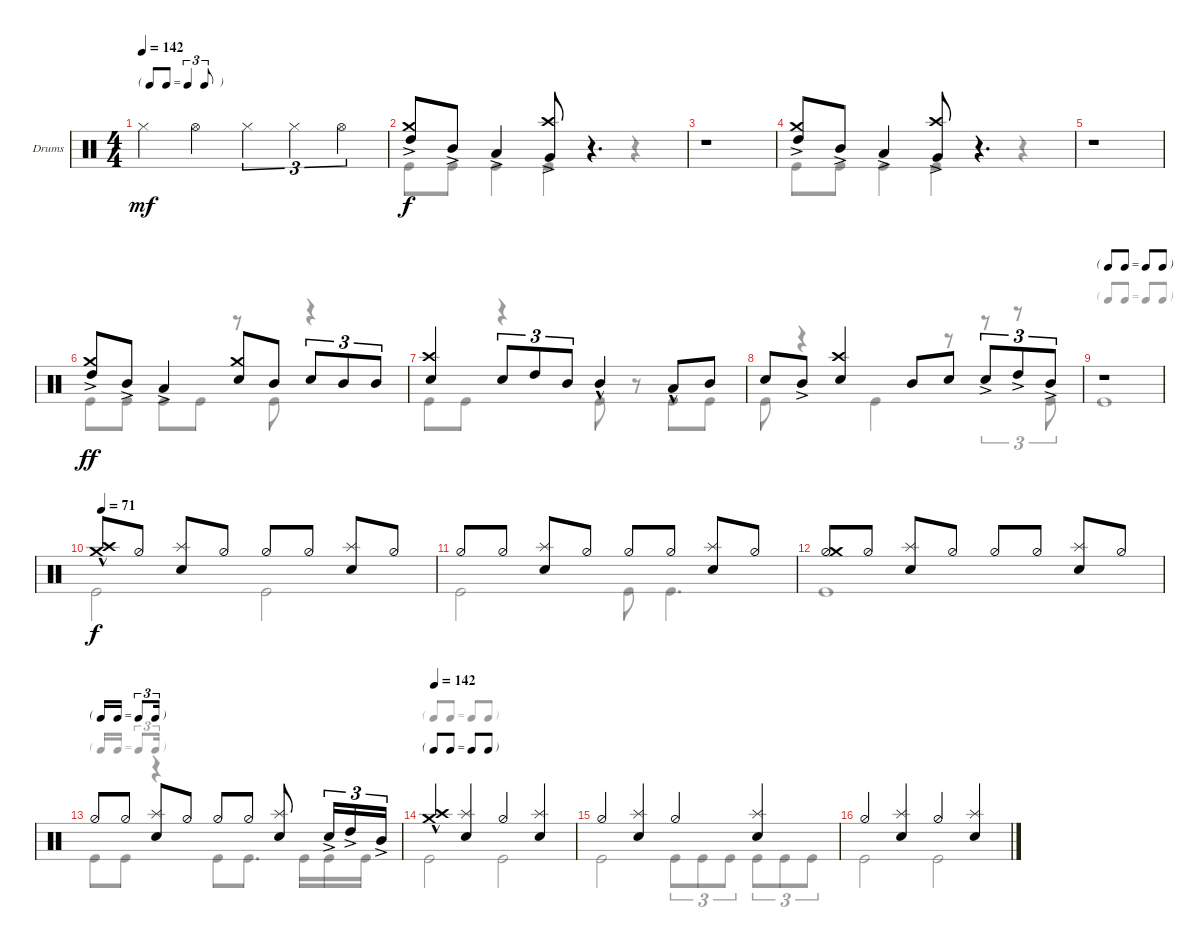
\defaultSystemsLayout 4
\bracketExtendMode groupsimilarinstruments
\firstSystemTrackNameOrientation horizontal
\otherSystemsTrackNameOrientation horizontal
\track ("Drumkit" "Drums") {instrument percussion}
\staff {score}
\articulation defaults
\voice
\ts (4 4)
\tf triplet8th
\tempo 142
\clef neutral
\ks c "Hi-Hat (closed)".4{dy mf} "Hi-Hat (open)".4 "Hi-Hat (closed)".4{tu (3 2)} "Hi-Hat (closed)".4{tu (3 2)} "Hi-Hat (open)".4{tu (3 2)}
|
("High Tom (hit)"{ac} "Crash medium (hit)").8{dy f} "Mid Tom (hit)"{ac}.8 "Low Tom (hit)"{ac}.4 ("Very Low Tom (hit)"{ac} "Crash high (hit)").8 r.4{d} |
r.1 |
("High Tom (hit)"{ac} "Crash medium (hit)").8 "Mid Tom (hit)"{ac}.8 "Low Tom (hit)"{ac}.4 ("Very Low Tom (hit)"{ac} "Crash high (hit)").8 r.4{d} |
r.1 |
("High Tom (hit)"{ac} "Crash medium (hit)").8{dy ff} "Mid Tom (hit)"{ac}.8 "Low Tom (hit)"{ac}.4 ("Snare (hit) 2" "Crash medium (hit)").8 "Mid Tom (hit)".8 "Snare (hit) 2".8{tu (3 2)} "Mid Tom (hit)".8{tu (3 2)} "Mid Tom (hit)".8{tu (3 2)} |
("Crash high (hit)" "Snare (hit) 2").4 "Snare (hit) 2".8{tu (3 2)} "High Tom (hit)".8{tu (3 2)} "Mid Tom (hit)".8{tu (3 2)} "Mid Tom (hit)"{hac}.4 "Low Tom (hit)"{hac}.8 "Mid Tom (hit)".8 |
"Snare (hit) 2".8 "Mid Tom (hit)"{ac}.8 ("Snare (hit) 2" "Crash high (hit)").4 "Mid Tom (hit)".8 "Snare (hit) 2".8 "Snare (hit) 2"{ac}.8{tu (3 2)} "High Tom (hit)"{ac}.8{tu (3 2)} "Mid Tom (hit)"{ac}.8{tu (3 2)} |
\tf none
r.1 |
\tempo 71
("Crash high (hit)"{hac} "Crash medium (hit)").8{dy f} "Hi-Hat (half)".8 ("Snare (hit) 2" "Splash (hit)").8 "Hi-Hat (half)".8 "Hi-Hat (half)".8 "Hi-Hat (half)".8 ("Snare (hit) 2" "Splash (hit)").8 "Hi-Hat (half)".8 |
"Hi-Hat (half)".8 "Hi-Hat (half)".8 ("Snare (hit) 2" "Splash (hit)").8 "Hi-Hat (half)".8 "Hi-Hat (half)".8 "Hi-Hat (half)".8 ("Snare (hit) 2" "Splash (hit)").8 "Hi-Hat (half)".8 |
("Hi-Hat (half)" "Crash medium (hit)").8 "Hi-Hat (half)".8 ("Snare (hit) 2" "Splash (hit)").8 "Hi-Hat (half)".8 "Hi-Hat (half)".8 "Hi-Hat (half)".8 ("Snare (hit) 2" "Splash (hit)").8 "Hi-Hat (half)".8 |
\tf triplet16th "Hi-Hat (half)".8 "Hi-Hat (half)".8
("Snare (hit) 2" "Splash (hit)").8 "Hi-Hat (half)".8 "Hi-Hat (half)".8 "Hi-Hat (half)".8 ("Snare (hit) 2" "Splash (hit)").8 "Snare (hit) 2"{ac}.16{tu (3 2)} "High Tom (hit)"{ac}.16{tu (3 2)} "Mid Tom (hit)"{ac}.16{tu (3 2)} |
\tf none
\tempo 142
("Crash high (hit)"{hac} "Crash medium (hit)").4 ("Snare (hit) 2" "Splash (hit)").4 "Hi-Hat (half)".4 ("Snare (hit) 2" "Splash (hit)").4 |
"Hi-Hat (half)".4 ("Snare (hit) 2" "Splash (hit)").4 "Hi-Hat (half)".4 ("Snare (hit) 2" "Splash (hit)").4 |
"Hi-Hat (half)".4 ("Snare (hit) 2" "Splash (hit)").4 "Hi-Hat (half)".4 ("Snare (hit) 2" "Splash (hit)").4
\voice
\clef neutral
\ottava regular
\simile none
\ks c
|
"Kick (hit)".8 "Kick (hit)".8 "Kick (hit)".4 "Kick (hit)".4 r.4 |
|
"Kick (hit)".8 "Kick (hit)".8 "Kick (hit)".4 "Kick (hit)".4 r.4 |
|
"Kick (hit)".8 "Kick (hit)".8 "Kick (hit)".8 "Kick (hit)".8 r.8 "Kick (hit)".8 r.4 |
"Kick (hit)".8 "Kick (hit)".8 r.4 "Kick (hit)".8 r.8 "Kick (hit)".8 "Kick (hit)".8 |
"Kick (hit)".8 r.4 "Kick (hit)".4 r.8 r.8{tu (3 2)} r.8{tu (3 2)} "Kick (hit)".8{tu (3 2)} |
"Kick (hit)".1 |
"Kick (hit)".2 "Kick (hit)".2 |
"Kick (hit)".2 "Kick (hit)".8 "Kick (hit)".4{d} |
"Kick (hit)".1 |
"Kick (hit)".8 "Kick (hit)".8 r.4 "Kick (hit)".8 "Kick (hit)".8{d} "Kick (hit)".16 "Kick (hit)".16 "Kick (hit)".16 |
"Kick (hit)".2 "Kick (hit)".2 |
"Kick (hit)".2 "Kick (hit)".8{tu (3 2)} "Kick (hit)".8{tu (3 2)} "Kick (hit)".8{tu (3 2)} "Kick (hit)".8{tu (3 2)} "Kick (hit)".8{tu (3 2)} "Kick (hit)".8{tu (3 2)} |
"Kick (hit)".2 "Kick (hit)".2
